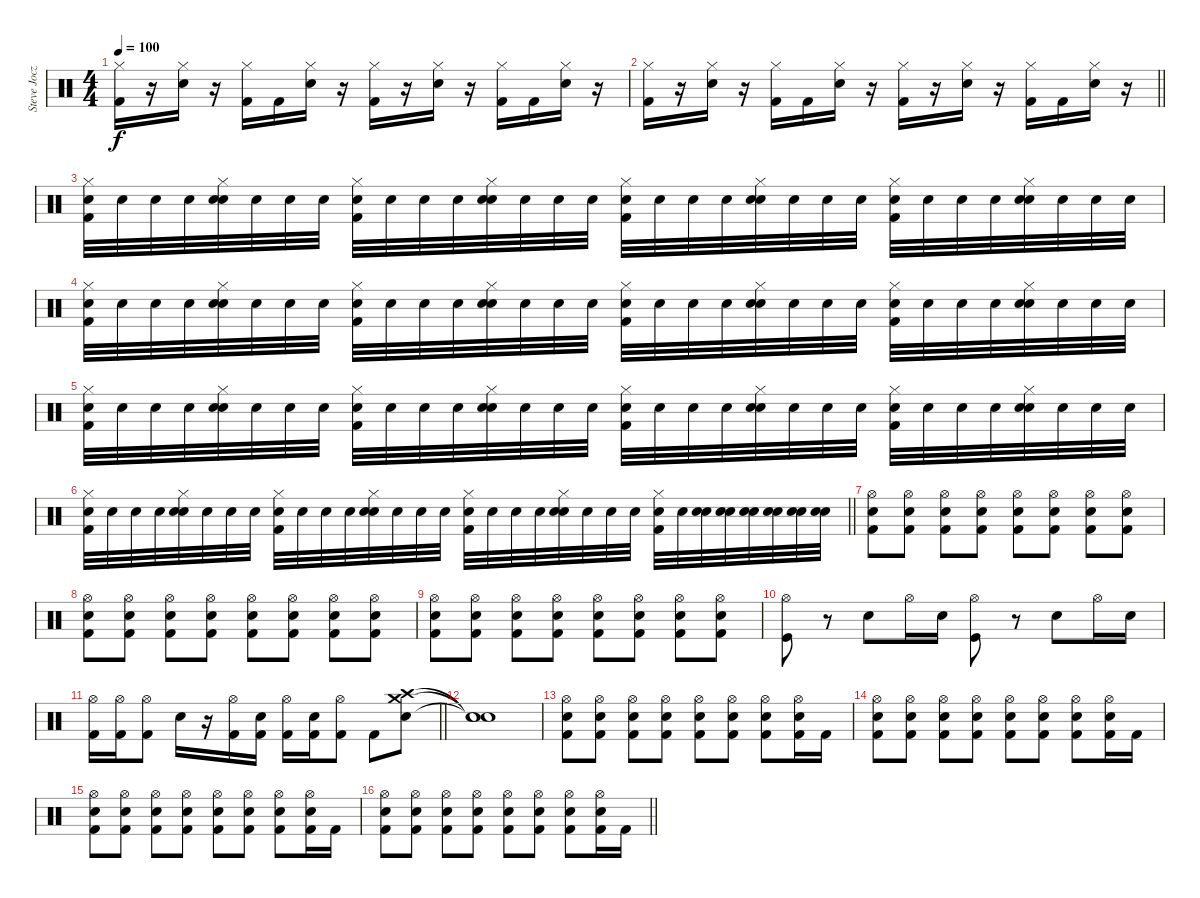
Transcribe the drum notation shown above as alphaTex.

\track ("Steve Jocz" "Steve Jocz") {instrument percussion}
\staff {score}
\articulation defaults
\ts (4 4)
\tempo 100
\clef neutral
\ks c
("Hi-Hat (closed)" "Kick (hit) 2").16{dy f} r.16 ("Hi-Hat (closed)" "Electric Snare (hit)").16 r.16 ("Hi-Hat (closed)" "Kick (hit) 2").16 "Kick (hit) 2".16 ("Hi-Hat (closed)" "Electric Snare (hit)").16 r.16 ("Hi-Hat (closed)" "Kick (hit) 2").16 r.16 ("Hi-Hat (closed)" "Electric Snare (hit)").16 r.16 ("Hi-Hat (closed)" "Kick (hit) 2").16 "Kick (hit) 2".16 ("Hi-Hat (closed)" "Electric Snare (hit)").16 r.16 |
\barLineRight lightlight
("Hi-Hat (closed)" "Kick (hit) 2").16 r.16 ("Hi-Hat (closed)" "Electric Snare (hit)").16 r.16 ("Hi-Hat (closed)" "Kick (hit) 2").16 "Kick (hit) 2".16 ("Hi-Hat (closed)" "Electric Snare (hit)").16 r.16 ("Hi-Hat (closed)" "Kick (hit) 2").16 r.16 ("Hi-Hat (closed)" "Electric Snare (hit)").16 r.16 ("Hi-Hat (closed)" "Kick (hit) 2").16 "Kick (hit) 2".16 ("Hi-Hat (closed)" "Electric Snare (hit)").16 r.16 |
("Hi-Hat (closed)" "Electric Snare (hit)" "Kick (hit) 2").32{volume 13} "Electric Snare (hit)".32 "Electric Snare (hit)".32 "Electric Snare (hit)".32 ("Snare (hit) 2" "Hi-Hat (closed)" "Electric Snare (hit)").32 "Electric Snare (hit)".32 "Electric Snare (hit)".32 "Electric Snare (hit)".32 ("Hi-Hat (closed)" "Electric Snare (hit)" "Kick (hit) 2").32 "Electric Snare (hit)".32 "Electric Snare (hit)".32 "Electric Snare (hit)".32 ("Snare (hit) 2" "Hi-Hat (closed)" "Electric Snare (hit)").32 "Electric Snare (hit)".32 "Electric Snare (hit)".32 "Electric Snare (hit)".32 ("Hi-Hat (closed)" "Electric Snare (hit)" "Kick (hit) 2").32 "Electric Snare (hit)".32 "Electric Snare (hit)".32 "Electric Snare (hit)".32 ("Snare (hit) 2" "Hi-Hat (closed)" "Electric Snare (hit)").32 "Electric Snare (hit)".32 "Electric Snare (hit)".32 "Electric Snare (hit)".32 ("Hi-Hat (closed)" "Electric Snare (hit)" "Kick (hit) 2").32 "Electric Snare (hit)".32 "Electric Snare (hit)".32 "Electric Snare (hit)".32 ("Snare (hit) 2" "Hi-Hat (closed)" "Electric Snare (hit)").32 "Electric Snare (hit)".32 "Electric Snare (hit)".32 "Electric Snare (hit)".32 |
("Hi-Hat (closed)" "Electric Snare (hit)" "Kick (hit) 2").32 "Electric Snare (hit)".32 "Electric Snare (hit)".32 "Electric Snare (hit)".32 ("Snare (hit) 2" "Hi-Hat (closed)" "Electric Snare (hit)").32 "Electric Snare (hit)".32 "Electric Snare (hit)".32 "Electric Snare (hit)".32 ("Hi-Hat (closed)" "Electric Snare (hit)" "Kick (hit) 2").32 "Electric Snare (hit)".32 "Electric Snare (hit)".32 "Electric Snare (hit)".32 ("Snare (hit) 2" "Hi-Hat (closed)" "Electric Snare (hit)").32 "Electric Snare (hit)".32 "Electric Snare (hit)".32 "Electric Snare (hit)".32 ("Hi-Hat (closed)" "Electric Snare (hit)" "Kick (hit) 2").32 "Electric Snare (hit)".32 "Electric Snare (hit)".32 "Electric Snare (hit)".32 ("Snare (hit) 2" "Hi-Hat (closed)" "Electric Snare (hit)").32 "Electric Snare (hit)".32 "Electric Snare (hit)".32 "Electric Snare (hit)".32 ("Hi-Hat (closed)" "Electric Snare (hit)" "Kick (hit) 2").32 "Electric Snare (hit)".32 "Electric Snare (hit)".32 "Electric Snare (hit)".32 ("Snare (hit) 2" "Hi-Hat (closed)" "Electric Snare (hit)").32 "Electric Snare (hit)".32 "Electric Snare (hit)".32 "Electric Snare (hit)".32 |
("Hi-Hat (closed)" "Electric Snare (hit)" "Kick (hit) 2").32 "Electric Snare (hit)".32 "Electric Snare (hit)".32 "Electric Snare (hit)".32 ("Snare (hit) 2" "Hi-Hat (closed)" "Electric Snare (hit)").32 "Electric Snare (hit)".32 "Electric Snare (hit)".32 "Electric Snare (hit)".32 ("Hi-Hat (closed)" "Electric Snare (hit)" "Kick (hit) 2").32 "Electric Snare (hit)".32 "Electric Snare (hit)".32 "Electric Snare (hit)".32 ("Snare (hit) 2" "Hi-Hat (closed)" "Electric Snare (hit)").32 "Electric Snare (hit)".32 "Electric Snare (hit)".32 "Electric Snare (hit)".32 ("Hi-Hat (closed)" "Electric Snare (hit)" "Kick (hit) 2").32 "Electric Snare (hit)".32 "Electric Snare (hit)".32 "Electric Snare (hit)".32 ("Snare (hit) 2" "Hi-Hat (closed)" "Electric Snare (hit)").32 "Electric Snare (hit)".32 "Electric Snare (hit)".32 "Electric Snare (hit)".32 ("Hi-Hat (closed)" "Electric Snare (hit)" "Kick (hit) 2").32 "Electric Snare (hit)".32 "Electric Snare (hit)".32 "Electric Snare (hit)".32 ("Snare (hit) 2" "Hi-Hat (closed)" "Electric Snare (hit)").32 "Electric Snare (hit)".32 "Electric Snare (hit)".32 "Electric Snare (hit)".32 |
\barLineRight lightlight
("Hi-Hat (closed)" "Electric Snare (hit)" "Kick (hit) 2").32 "Electric Snare (hit)".32 "Electric Snare (hit)".32 "Electric Snare (hit)".32 ("Snare (hit) 2" "Hi-Hat (closed)" "Electric Snare (hit)").32 "Electric Snare (hit)".32 "Electric Snare (hit)".32 "Electric Snare (hit)".32 ("Hi-Hat (closed)" "Electric Snare (hit)" "Kick (hit) 2").32 "Electric Snare (hit)".32 "Electric Snare (hit)".32 "Electric Snare (hit)".32 ("Snare (hit) 2" "Hi-Hat (closed)" "Electric Snare (hit)").32 "Electric Snare (hit)".32 "Electric Snare (hit)".32 "Electric Snare (hit)".32 ("Hi-Hat (closed)" "Electric Snare (hit)" "Kick (hit) 2").32 "Electric Snare (hit)".32 "Electric Snare (hit)".32 "Electric Snare (hit)".32 ("Snare (hit) 2" "Hi-Hat (closed)" "Electric Snare (hit)").32 "Electric Snare (hit)".32 "Electric Snare (hit)".32 "Electric Snare (hit)".32 ("Hi-Hat (closed)" "Electric Snare (hit)" "Kick (hit) 2").32 "Electric Snare (hit)".32 ("Electric Snare (hit)" "Electric Snare (hit)").32 ("Electric Snare (hit)" "Electric Snare (hit)").32 ("Electric Snare (hit)" "Electric Snare (hit)").32 ("Electric Snare (hit)" "Electric Snare (hit)").32 ("Electric Snare (hit)" "Electric Snare (hit)").32 ("Electric Snare (hit)" "Electric Snare (hit)").32 |
("Hi-Hat (open)" "Electric Snare (hit)" "Kick (hit) 2").8 ("Hi-Hat (open)" "Electric Snare (hit)" "Kick (hit) 2").8 ("Hi-Hat (open)" "Electric Snare (hit)" "Kick (hit) 2").8 ("Hi-Hat (open)" "Electric Snare (hit)" "Kick (hit) 2").8 ("Hi-Hat (open)" "Electric Snare (hit)" "Kick (hit) 2").8 ("Hi-Hat (open)" "Electric Snare (hit)" "Kick (hit) 2").8 ("Hi-Hat (open)" "Electric Snare (hit)" "Kick (hit) 2").8 ("Hi-Hat (open)" "Electric Snare (hit)" "Kick (hit) 2").8 |
("Hi-Hat (open)" "Electric Snare (hit)" "Kick (hit) 2").8 ("Hi-Hat (open)" "Electric Snare (hit)" "Kick (hit) 2").8 ("Hi-Hat (open)" "Electric Snare (hit)" "Kick (hit) 2").8 ("Hi-Hat (open)" "Electric Snare (hit)" "Kick (hit) 2").8 ("Hi-Hat (open)" "Electric Snare (hit)" "Kick (hit) 2").8 ("Hi-Hat (open)" "Electric Snare (hit)" "Kick (hit) 2").8 ("Hi-Hat (open)" "Electric Snare (hit)" "Kick (hit) 2").8 ("Hi-Hat (open)" "Electric Snare (hit)" "Kick (hit) 2").8 |
("Hi-Hat (open)" "Electric Snare (hit)" "Kick (hit) 2").8 ("Hi-Hat (open)" "Electric Snare (hit)" "Kick (hit) 2").8 ("Hi-Hat (open)" "Electric Snare (hit)" "Kick (hit) 2").8 ("Hi-Hat (open)" "Electric Snare (hit)" "Kick (hit) 2").8 ("Hi-Hat (open)" "Electric Snare (hit)" "Kick (hit) 2").8 ("Hi-Hat (open)" "Electric Snare (hit)" "Kick (hit) 2").8 ("Hi-Hat (open)" "Electric Snare (hit)" "Kick (hit) 2").8 ("Hi-Hat (open)" "Electric Snare (hit)" "Kick (hit) 2").8 |
("Hi-Hat (open)" "Kick (hit)").8 r.8 "Electric Snare (hit)".8 "Hi-Hat (open)".16 "Electric Snare (hit)".16 ("Hi-Hat (open)" "Kick (hit)").8 r.8 "Electric Snare (hit)".8 "Hi-Hat (open)".16 "Electric Snare (hit)".16 |
\barLineRight lightlight
("Hi-Hat (open)" "Kick (hit) 2").16 ("Hi-Hat (open)" "Kick (hit) 2").16 ("Hi-Hat (open)" "Kick (hit) 2").8 "Electric Snare (hit)".16 r.16 ("Hi-Hat (open)" "Kick (hit) 2").16 ("Electric Snare (hit)" "Kick (hit) 2").16 ("Hi-Hat (open)" "Kick (hit) 2").16 ("Electric Snare (hit)" "Kick (hit) 2").16 ("Hi-Hat (open)" "Kick (hit) 2").8 "Kick (hit) 2".8 ("Crash high (hit)" "Crash medium (hit)" "Electric Snare (hit)").8 |
("Snare (hit)"{t} "Snare (hit)"{t} "Snare (hit)"{t}).1 |
("Hi-Hat (open)" "Electric Snare (hit)" "Kick (hit) 2").8 ("Hi-Hat (open)" "Electric Snare (hit)" "Kick (hit) 2").8 ("Hi-Hat (open)" "Electric Snare (hit)" "Kick (hit) 2").8 ("Hi-Hat (open)" "Electric Snare (hit)" "Kick (hit) 2").8 ("Hi-Hat (open)" "Electric Snare (hit)" "Kick (hit) 2").8 ("Hi-Hat (open)" "Electric Snare (hit)" "Kick (hit) 2").8 ("Hi-Hat (open)" "Electric Snare (hit)" "Kick (hit) 2").8 ("Hi-Hat (open)" "Electric Snare (hit)" "Kick (hit) 2").16 "Kick (hit) 2".16 |
("Hi-Hat (open)" "Electric Snare (hit)" "Kick (hit) 2").8 ("Hi-Hat (open)" "Electric Snare (hit)" "Kick (hit) 2").8 ("Hi-Hat (open)" "Electric Snare (hit)" "Kick (hit) 2").8 ("Hi-Hat (open)" "Electric Snare (hit)" "Kick (hit) 2").8 ("Hi-Hat (open)" "Electric Snare (hit)" "Kick (hit) 2").8 ("Hi-Hat (open)" "Electric Snare (hit)" "Kick (hit) 2").8 ("Hi-Hat (open)" "Electric Snare (hit)" "Kick (hit) 2").8 ("Hi-Hat (open)" "Electric Snare (hit)" "Kick (hit) 2").16 "Kick (hit) 2".16 |
("Hi-Hat (open)" "Electric Snare (hit)" "Kick (hit) 2").8 ("Hi-Hat (open)" "Electric Snare (hit)" "Kick (hit) 2").8 ("Hi-Hat (open)" "Electric Snare (hit)" "Kick (hit) 2").8 ("Hi-Hat (open)" "Electric Snare (hit)" "Kick (hit) 2").8 ("Hi-Hat (open)" "Electric Snare (hit)" "Kick (hit) 2").8 ("Hi-Hat (open)" "Electric Snare (hit)" "Kick (hit) 2").8 ("Hi-Hat (open)" "Electric Snare (hit)" "Kick (hit) 2").8 ("Hi-Hat (open)" "Electric Snare (hit)" "Kick (hit) 2").16 "Kick (hit) 2".16 |
\barLineRight lightlight
("Hi-Hat (open)" "Electric Snare (hit)" "Kick (hit) 2").8 ("Hi-Hat (open)" "Electric Snare (hit)" "Kick (hit) 2").8 ("Hi-Hat (open)" "Electric Snare (hit)" "Kick (hit) 2").8 ("Hi-Hat (open)" "Electric Snare (hit)" "Kick (hit) 2").8 ("Hi-Hat (open)" "Electric Snare (hit)" "Kick (hit) 2").8 ("Hi-Hat (open)" "Electric Snare (hit)" "Kick (hit) 2").8 ("Hi-Hat (open)" "Electric Snare (hit)" "Kick (hit) 2").8 ("Hi-Hat (open)" "Electric Snare (hit)" "Kick (hit) 2").16 "Kick (hit) 2".16
